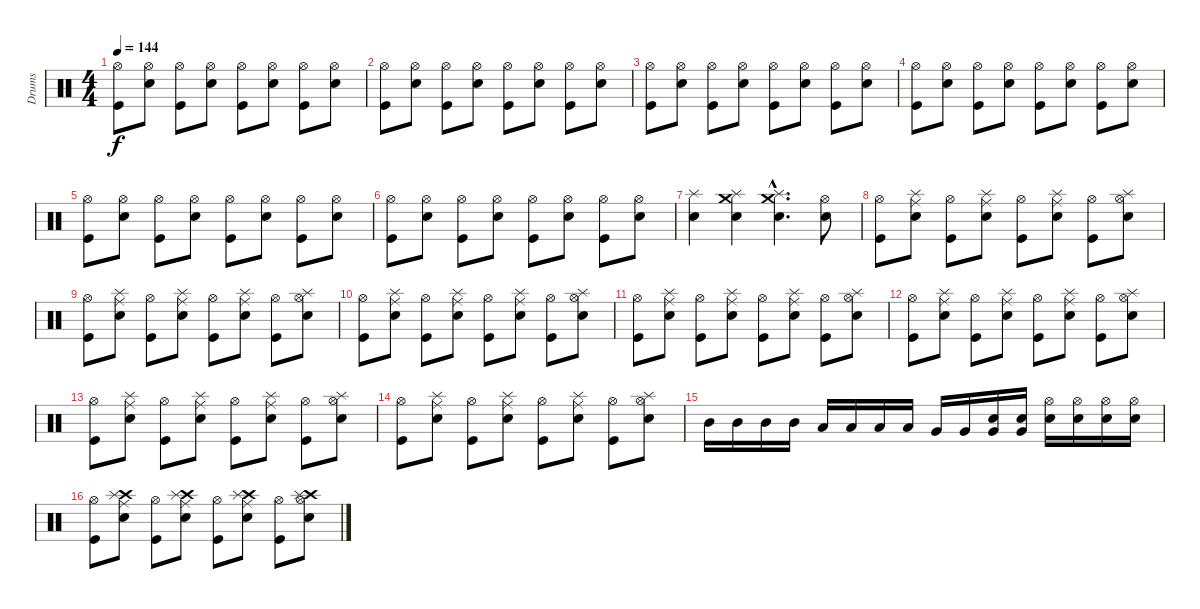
\track ("Drums" "Drums") {instrument percussion}
\staff {score}
\articulation defaults
\ts (4 4)
\tempo 144
\clef neutral
\ks c
("Kick (hit)" "Hi-Hat (open)").8{dy f} ("Snare (hit) 2" "Hi-Hat (open)").8 ("Kick (hit)" "Hi-Hat (open)").8 ("Snare (hit) 2" "Hi-Hat (open)").8 ("Kick (hit)" "Hi-Hat (open)").8 ("Snare (hit) 2" "Hi-Hat (open)").8 ("Kick (hit)" "Hi-Hat (open)").8 ("Snare (hit) 2" "Hi-Hat (open)").8 |
("Kick (hit)" "Hi-Hat (open)").8 ("Snare (hit) 2" "Hi-Hat (open)").8 ("Kick (hit)" "Hi-Hat (open)").8 ("Snare (hit) 2" "Hi-Hat (open)").8 ("Kick (hit)" "Hi-Hat (open)").8 ("Snare (hit) 2" "Hi-Hat (open)").8 ("Kick (hit)" "Hi-Hat (open)").8 ("Snare (hit) 2" "Hi-Hat (open)").8 |
("Kick (hit)" "Hi-Hat (open)").8 ("Snare (hit) 2" "Hi-Hat (open)").8 ("Kick (hit)" "Hi-Hat (open)").8 ("Snare (hit) 2" "Hi-Hat (open)").8 ("Kick (hit)" "Hi-Hat (open)").8 ("Snare (hit) 2" "Hi-Hat (open)").8 ("Kick (hit)" "Hi-Hat (open)").8 ("Snare (hit) 2" "Hi-Hat (open)").8 |
("Kick (hit)" "Hi-Hat (open)").8 ("Snare (hit) 2" "Hi-Hat (open)").8 ("Kick (hit)" "Hi-Hat (open)").8 ("Snare (hit) 2" "Hi-Hat (open)").8 ("Kick (hit)" "Hi-Hat (open)").8 ("Snare (hit) 2" "Hi-Hat (open)").8 ("Kick (hit)" "Hi-Hat (open)").8 ("Snare (hit) 2" "Hi-Hat (open)").8 |
("Kick (hit)" "Hi-Hat (open)").8 ("Snare (hit) 2" "Hi-Hat (open)").8 ("Kick (hit)" "Hi-Hat (open)").8 ("Snare (hit) 2" "Hi-Hat (open)").8 ("Kick (hit)" "Hi-Hat (open)").8 ("Snare (hit) 2" "Hi-Hat (open)").8 ("Kick (hit)" "Hi-Hat (open)").8 ("Snare (hit) 2" "Hi-Hat (open)").8 |
("Kick (hit)" "Hi-Hat (open)").8 ("Snare (hit) 2" "Hi-Hat (open)").8 ("Kick (hit)" "Hi-Hat (open)").8 ("Snare (hit) 2" "Hi-Hat (open)").8 ("Kick (hit)" "Hi-Hat (open)").8 ("Snare (hit) 2" "Hi-Hat (open)").8 ("Kick (hit)" "Hi-Hat (open)").8 ("Snare (hit) 2" "Hi-Hat (open)").8 |
("Snare (hit) 2" "Splash (hit)").4 ("Snare (hit) 2" "Splash (hit)" "Crash medium (hit)").4 ("Snare (hit) 2"{hac} "Splash (hit)"{hac} "Crash medium (hit)"{hac}).4{d} ("Snare (hit) 2" "Hi-Hat (open)").8 |
("Kick (hit)" "Hi-Hat (open)").8 ("Snare (hit) 2" "Ride (middle)" "Splash (hit)").8 ("Kick (hit)" "Hi-Hat (open)").8 ("Snare (hit) 2" "Ride (middle)" "Splash (hit)").8 ("Kick (hit)" "Hi-Hat (open)").8 ("Snare (hit) 2" "Ride (middle)" "Splash (hit)").8 ("Kick (hit)" "Hi-Hat (open)").8 ("Snare (hit) 2" "Hi-Hat (open)" "Splash (hit)").8 |
("Kick (hit)" "Hi-Hat (open)").8 ("Snare (hit) 2" "Ride (middle)" "Splash (hit)").8 ("Kick (hit)" "Hi-Hat (open)").8 ("Snare (hit) 2" "Ride (middle)" "Splash (hit)").8 ("Kick (hit)" "Hi-Hat (open)").8 ("Snare (hit) 2" "Ride (middle)" "Splash (hit)").8 ("Kick (hit)" "Hi-Hat (open)").8 ("Snare (hit) 2" "Hi-Hat (open)" "Splash (hit)").8 |
("Kick (hit)" "Hi-Hat (open)").8 ("Snare (hit) 2" "Ride (middle)" "Splash (hit)").8 ("Kick (hit)" "Hi-Hat (open)").8 ("Snare (hit) 2" "Ride (middle)" "Splash (hit)").8 ("Kick (hit)" "Hi-Hat (open)").8 ("Snare (hit) 2" "Ride (middle)" "Splash (hit)").8 ("Kick (hit)" "Hi-Hat (open)").8 ("Snare (hit) 2" "Hi-Hat (open)" "Splash (hit)").8 |
("Kick (hit)" "Hi-Hat (open)").8 ("Snare (hit) 2" "Ride (middle)" "Splash (hit)").8 ("Kick (hit)" "Hi-Hat (open)").8 ("Snare (hit) 2" "Ride (middle)" "Splash (hit)").8 ("Kick (hit)" "Hi-Hat (open)").8 ("Snare (hit) 2" "Ride (middle)" "Splash (hit)").8 ("Kick (hit)" "Hi-Hat (open)").8 ("Snare (hit) 2" "Hi-Hat (open)" "Splash (hit)").8 |
("Kick (hit)" "Hi-Hat (open)").8 ("Snare (hit) 2" "Ride (middle)" "Splash (hit)").8 ("Kick (hit)" "Hi-Hat (open)").8 ("Snare (hit) 2" "Ride (middle)" "Splash (hit)").8 ("Kick (hit)" "Hi-Hat (open)").8 ("Snare (hit) 2" "Ride (middle)" "Splash (hit)").8 ("Kick (hit)" "Hi-Hat (open)").8 ("Snare (hit) 2" "Hi-Hat (open)" "Splash (hit)").8 |
("Kick (hit)" "Hi-Hat (open)").8 ("Snare (hit) 2" "Ride (middle)" "Splash (hit)").8 ("Kick (hit)" "Hi-Hat (open)").8 ("Snare (hit) 2" "Ride (middle)" "Splash (hit)").8 ("Kick (hit)" "Hi-Hat (open)").8 ("Snare (hit) 2" "Ride (middle)" "Splash (hit)").8 ("Kick (hit)" "Hi-Hat (open)").8 ("Snare (hit) 2" "Hi-Hat (open)" "Splash (hit)").8 |
("Kick (hit)" "Hi-Hat (open)").8 ("Snare (hit) 2" "Ride (middle)" "Splash (hit)").8 ("Kick (hit)" "Hi-Hat (open)").8 ("Snare (hit) 2" "Ride (middle)" "Splash (hit)").8 ("Kick (hit)" "Hi-Hat (open)").8 ("Snare (hit) 2" "Ride (middle)" "Splash (hit)").8 ("Kick (hit)" "Hi-Hat (open)").8 ("Snare (hit) 2" "Hi-Hat (open)" "Splash (hit)").8 |
"Mid Tom (hit)".16 "Mid Tom (hit)".16 "Mid Tom (hit)".16 "Mid Tom (hit)".16 "Low Tom (hit)".16 "Low Tom (hit)".16 "Low Tom (hit)".16 "Low Tom (hit)".16 "Very Low Tom (hit)".16 "Very Low Tom (hit)".16 ("Very Low Tom (hit)" "Snare (hit) 2").16 ("Very Low Tom (hit)" "Snare (hit) 2").16 ("Snare (hit) 2" "Hi-Hat (open)").16 ("Snare (hit) 2" "Hi-Hat (open)").16 ("Snare (hit) 2" "Hi-Hat (open)").16 ("Snare (hit) 2" "Hi-Hat (open)").16 |
("Kick (hit)" "Hi-Hat (open)").8 ("Snare (hit) 2" "Ride (middle)" "Crash high (hit)" "Splash (hit)").8 ("Kick (hit)" "Hi-Hat (open)").8 ("Snare (hit) 2" "Ride (middle)" "Crash high (hit)" "Splash (hit)").8 ("Kick (hit)" "Hi-Hat (open)").8 ("Snare (hit) 2" "Ride (middle)" "Crash high (hit)" "Splash (hit)").8 ("Kick (hit)" "Hi-Hat (open)").8 ("Snare (hit) 2" "Hi-Hat (open)" "Crash high (hit)" "Splash (hit)").8
